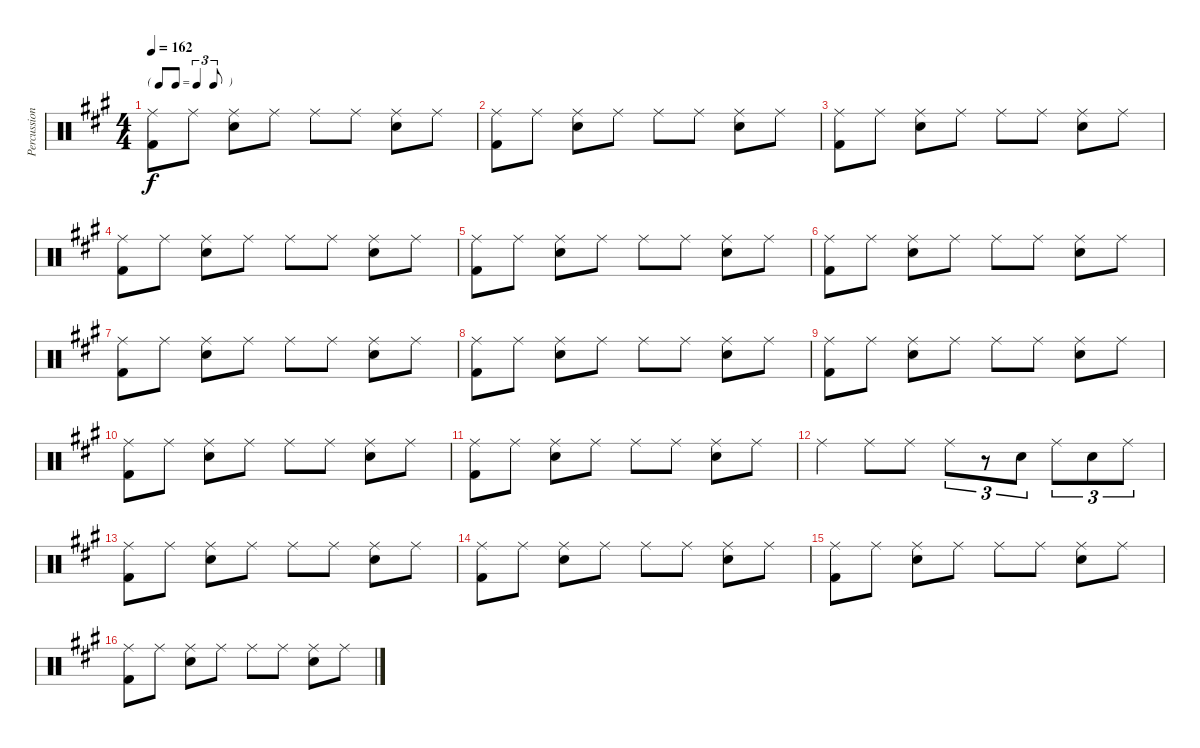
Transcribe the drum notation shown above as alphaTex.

\track ("Percussion" "Percussion") {instrument percussion}
\staff {score}
\articulation defaults
\ts (4 4)
\tf triplet8th
\tempo 162
\clef neutral
\ks a
("Ride (middle)" "Kick (hit) 2").8{dy f} "Ride (middle)".8 ("Ride (middle)" "Snare (hit) 2").8 "Ride (middle)".8 "Ride (middle)".8 "Ride (middle)".8 ("Ride (middle)" "Snare (hit) 2").8 "Ride (middle)".8 |
("Ride (middle)" "Kick (hit) 2").8 "Ride (middle)".8 ("Ride (middle)" "Snare (hit) 2").8 "Ride (middle)".8 "Ride (middle)".8 "Ride (middle)".8 ("Ride (middle)" "Snare (hit) 2").8 "Ride (middle)".8 |
("Ride (middle)" "Kick (hit) 2").8 "Ride (middle)".8 ("Ride (middle)" "Snare (hit) 2").8 "Ride (middle)".8 "Ride (middle)".8 "Ride (middle)".8 ("Ride (middle)" "Snare (hit) 2").8 "Ride (middle)".8 |
("Ride (middle)" "Kick (hit) 2").8 "Ride (middle)".8 ("Ride (middle)" "Snare (hit) 2").8 "Ride (middle)".8 "Ride (middle)".8 "Ride (middle)".8 ("Ride (middle)" "Snare (hit) 2").8 "Ride (middle)".8 |
("Ride (middle)" "Kick (hit) 2").8 "Ride (middle)".8 ("Ride (middle)" "Snare (hit) 2").8 "Ride (middle)".8 "Ride (middle)".8 "Ride (middle)".8 ("Ride (middle)" "Snare (hit) 2").8 "Ride (middle)".8 |
("Ride (middle)" "Kick (hit) 2").8 "Ride (middle)".8 ("Ride (middle)" "Snare (hit) 2").8 "Ride (middle)".8 "Ride (middle)".8 "Ride (middle)".8 ("Ride (middle)" "Snare (hit) 2").8 "Ride (middle)".8 |
("Ride (middle)" "Kick (hit) 2").8 "Ride (middle)".8 ("Ride (middle)" "Snare (hit) 2").8 "Ride (middle)".8 "Ride (middle)".8 "Ride (middle)".8 ("Ride (middle)" "Snare (hit) 2").8 "Ride (middle)".8 |
("Ride (middle)" "Kick (hit) 2").8 "Ride (middle)".8 ("Ride (middle)" "Snare (hit) 2").8 "Ride (middle)".8 "Ride (middle)".8 "Ride (middle)".8 ("Ride (middle)" "Snare (hit) 2").8 "Ride (middle)".8 |
("Ride (middle)" "Kick (hit) 2").8 "Ride (middle)".8 ("Ride (middle)" "Snare (hit) 2").8 "Ride (middle)".8 "Ride (middle)".8 "Ride (middle)".8 ("Ride (middle)" "Snare (hit) 2").8 "Ride (middle)".8 |
("Ride (middle)" "Kick (hit) 2").8 "Ride (middle)".8 ("Ride (middle)" "Snare (hit) 2").8 "Ride (middle)".8 "Ride (middle)".8 "Ride (middle)".8 ("Ride (middle)" "Snare (hit) 2").8 "Ride (middle)".8 |
("Ride (middle)" "Kick (hit) 2").8 "Ride (middle)".8 ("Ride (middle)" "Snare (hit) 2").8 "Ride (middle)".8 "Ride (middle)".8 "Ride (middle)".8 ("Ride (middle)" "Snare (hit) 2").8 "Ride (middle)".8 |
"Ride (middle)".4 "Ride (middle)".8 "Ride (middle)".8 "Ride (middle)".8{tu (3 2)} r.8{tu (3 2)} "Snare (hit) 2".8{tu (3 2)} "Ride (middle)".8{tu (3 2)} "Snare (hit) 2".8{tu (3 2)} "Ride (middle)".8{tu (3 2)} |
("Ride (middle)" "Kick (hit) 2").8 "Ride (middle)".8 ("Ride (middle)" "Snare (hit) 2").8 "Ride (middle)".8 "Ride (middle)".8 "Ride (middle)".8 ("Ride (middle)" "Snare (hit) 2").8 "Ride (middle)".8 |
("Ride (middle)" "Kick (hit) 2").8 "Ride (middle)".8 ("Ride (middle)" "Snare (hit) 2").8 "Ride (middle)".8 "Ride (middle)".8 "Ride (middle)".8 ("Ride (middle)" "Snare (hit) 2").8 "Ride (middle)".8 |
("Ride (middle)" "Kick (hit) 2").8 "Ride (middle)".8 ("Ride (middle)" "Snare (hit) 2").8 "Ride (middle)".8 "Ride (middle)".8 "Ride (middle)".8 ("Ride (middle)" "Snare (hit) 2").8 "Ride (middle)".8 |
("Ride (middle)" "Kick (hit) 2").8 "Ride (middle)".8 ("Ride (middle)" "Snare (hit) 2").8 "Ride (middle)".8 "Ride (middle)".8 "Ride (middle)".8 ("Ride (middle)" "Snare (hit) 2").8 "Ride (middle)".8
